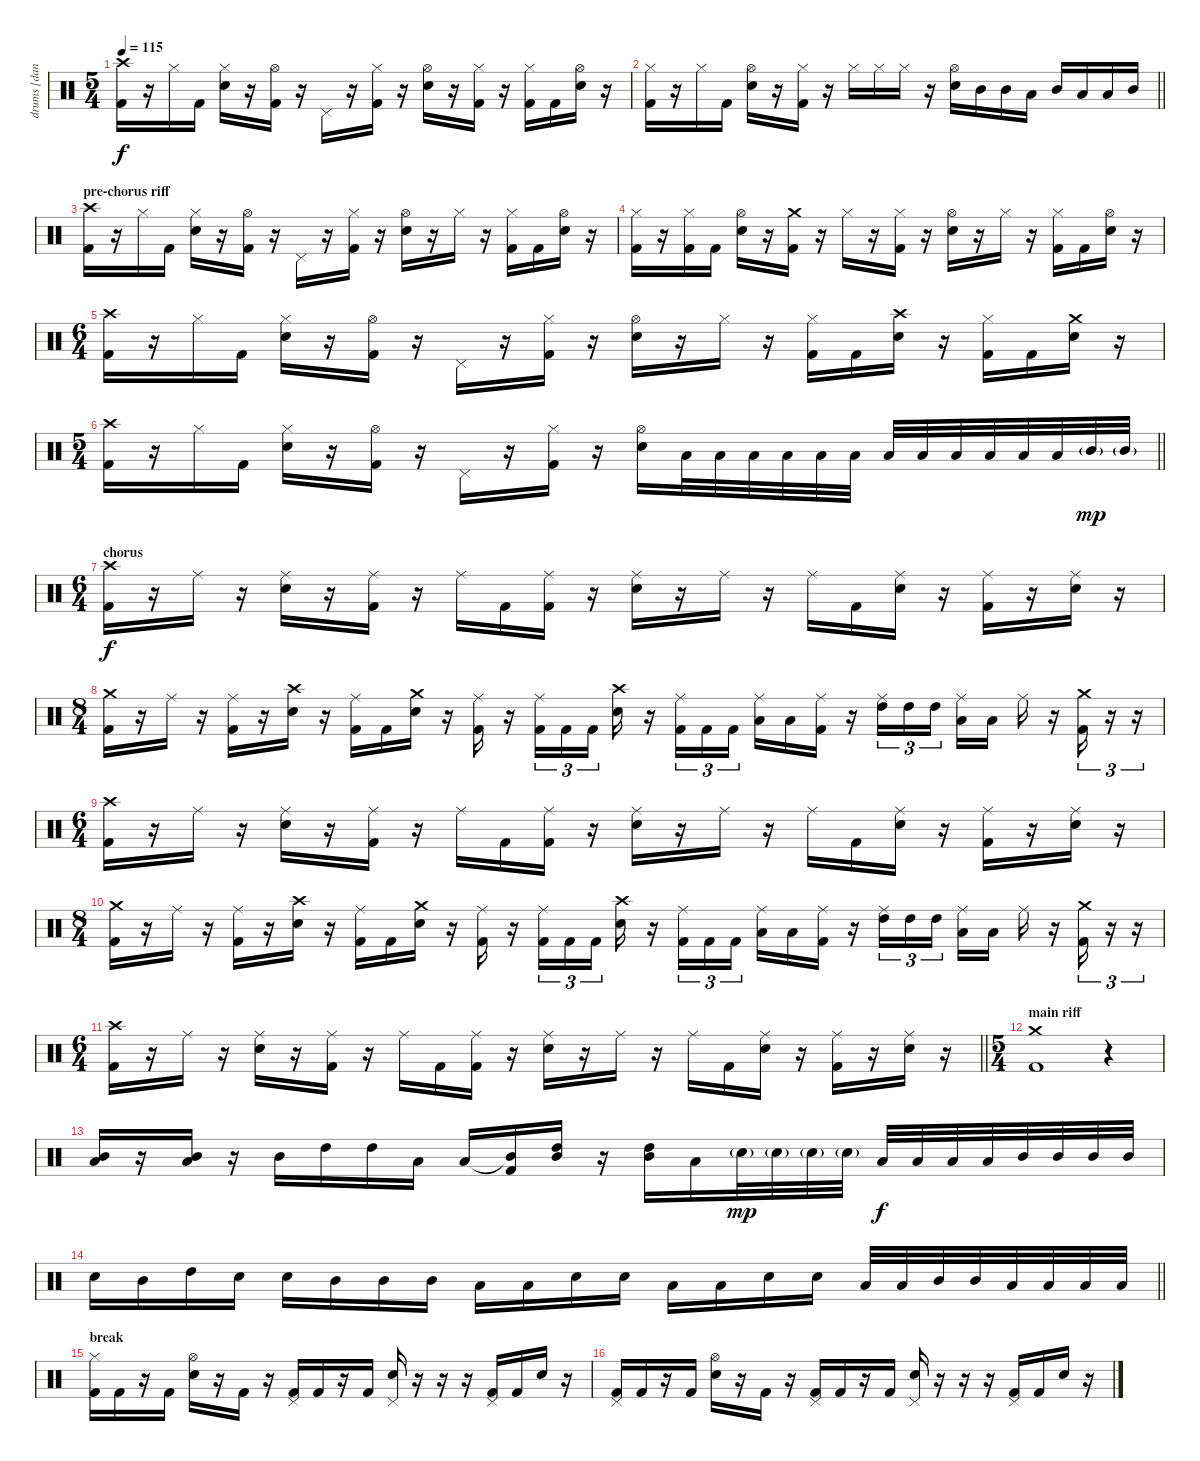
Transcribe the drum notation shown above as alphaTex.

\track ("drums [danny carey]" "drums [dan") {instrument percussion}
\staff {score}
\articulation defaults
\ts (5 4)
\tempo 115
\clef neutral
\ks c
("Crash high (hit)" "Kick (hit) 2").16{dy f} r.16 "Hi-Hat (closed)".16 "Kick (hit) 2".16 ("Hi-Hat (closed)" "Electric Snare (hit)").16 r.16 ("Hi-Hat (open)" "Kick (hit) 2").16 r.16 "Pedal Hi-Hat (hit)".16 r.16 ("Hi-Hat (closed)" "Kick (hit) 2").16 r.16 ("Hi-Hat (open)" "Electric Snare (hit)").16 r.16 ("Hi-Hat (closed)" "Kick (hit) 2").16 r.16 ("Hi-Hat (closed)" "Kick (hit) 2").16 "Kick (hit) 2".16 ("Hi-Hat (open)" "Electric Snare (hit)").16 r.16 |
\barLineRight lightlight
("Hi-Hat (closed)" "Kick (hit) 2").16 r.16 "Hi-Hat (closed)".16 "Kick (hit) 2".16 ("Hi-Hat (open)" "Electric Snare (hit)").16 r.16 ("Hi-Hat (closed)" "Kick (hit) 2").16 r.16 "Hi-Hat (closed)".16 "Hi-Hat (closed)".16 "Hi-Hat (closed)".16 r.16 ("Hi-Hat (open)" "Electric Snare (hit)").16 "Mid Tom (hit)".16 "Mid Tom (hit)".16 "Low Tom (hit)".16 "Mid Tom (hit)".16 "Low Tom (hit)".16 "Low Tom (hit)".16 "Mid Tom (hit)".16 |
\section ("" "pre-chorus riff")
("Crash high (hit)" "Kick (hit) 2").16 r.16 "Hi-Hat (closed)".16 "Kick (hit) 2".16 ("Hi-Hat (closed)" "Electric Snare (hit)").16 r.16 ("Hi-Hat (open)" "Kick (hit) 2").16 r.16 "Pedal Hi-Hat (hit)".16 r.16 ("Hi-Hat (closed)" "Kick (hit) 2").16 r.16 ("Hi-Hat (open)" "Electric Snare (hit)").16 r.16 "Hi-Hat (closed)".16 r.16 ("Hi-Hat (closed)" "Kick (hit) 2").16 "Kick (hit) 2".16 ("Hi-Hat (open)" "Electric Snare (hit)").16 r.16 |
("Hi-Hat (closed)" "Kick (hit) 2").16 r.16 ("Hi-Hat (closed)" "Kick (hit) 2").16 "Kick (hit) 2".16 ("Hi-Hat (open)" "Electric Snare (hit)").16 r.16 ("Crash medium (hit)" "Kick (hit) 2").16 r.16 "Hi-Hat (closed)".16 r.16 ("Hi-Hat (closed)" "Kick (hit) 2").16 r.16 ("Hi-Hat (open)" "Electric Snare (hit)").16 r.16 "Hi-Hat (closed)".16 r.16 ("Hi-Hat (closed)" "Kick (hit) 2").16 "Kick (hit) 2".16 ("Hi-Hat (open)" "Electric Snare (hit)").16 r.16 |
\ts (6 4)
("Crash high (hit)" "Kick (hit) 2").16 r.16 "Hi-Hat (closed)".16 "Kick (hit) 2".16 ("Hi-Hat (closed)" "Electric Snare (hit)").16 r.16 ("Hi-Hat (open)" "Kick (hit) 2").16 r.16 "Pedal Hi-Hat (hit)".16 r.16 ("Hi-Hat (closed)" "Kick (hit) 2").16 r.16 ("Hi-Hat (open)" "Electric Snare (hit)").16 r.16 "Hi-Hat (closed)".16 r.16 ("Hi-Hat (closed)" "Kick (hit) 2").16 "Kick (hit) 2".16 ("Crash high (hit)" "Electric Snare (hit)").16 r.16 ("Hi-Hat (closed)" "Kick (hit) 2").16 "Kick (hit) 2".16 ("Crash medium (hit)" "Electric Snare (hit)").16 r.16 |
\ts (5 4)
\barLineRight lightlight
("Crash high (hit)" "Kick (hit) 2").16 r.16 "Hi-Hat (closed)".16 "Kick (hit) 2".16 ("Hi-Hat (closed)" "Electric Snare (hit)").16 r.16 ("Hi-Hat (open)" "Kick (hit) 2").16 r.16 "Pedal Hi-Hat (hit)".16 r.16 ("Hi-Hat (closed)" "Kick (hit) 2").16 r.16 ("Hi-Hat (open)" "Electric Snare (hit)").16 "Low Floor Tom (hit)".32 "Low Floor Tom (hit)".32 "Low Floor Tom (hit)".32 "Low Floor Tom (hit)".32 "Low Tom (hit)".32 "Low Tom (hit)".32 "Low Floor Tom (hit)".32 "Low Floor Tom (hit)".32 "Low Floor Tom (hit)".32 "Low Floor Tom (hit)".32 "Low Tom (hit)".32 "Low Tom (hit)".32 "Mid Tom (hit)"{g}.32{dy mp} "Mid Tom (hit)"{g}.32 |
\ts (6 4)
\section ("" "chorus")
("Crash high (hit)" "Kick (hit) 2").16{dy f} r.16 "Ride (middle)".16 r.16 ("Ride (middle)" "Electric Snare (hit)").16 r.16 ("Ride (middle)" "Kick (hit) 2").16 r.16 "Ride (middle)".16 "Kick (hit) 2".16 ("Ride (middle)" "Kick (hit) 2").16 r.16 ("Ride (middle)" "Electric Snare (hit)").16 r.16 "Ride (middle)".16 r.16 "Ride (middle)".16 "Kick (hit) 2".16 ("Ride (middle)" "Electric Snare (hit)").16 r.16 ("Ride (middle)" "Kick (hit) 2").16 r.16 ("Ride (middle)" "Electric Snare (hit)").16 r.16 |
\ts (8 4)
("Crash medium (hit)" "Kick (hit) 2").16 r.16 "Ride (middle)".16 r.16 ("Ride (middle)" "Kick (hit) 2").16 r.16 ("Crash high (hit)" "Electric Snare (hit)").16 r.16 ("Ride (middle)" "Kick (hit) 2").16 "Kick (hit) 2".16 ("Crash medium (hit)" "Electric Snare (hit)").16 r.16 ("Ride (middle)" "Kick (hit) 2").16 r.16 ("Ride (middle)" "Kick (hit) 2").16{tu (3 2)} "Kick (hit) 2".16{tu (3 2)} "Kick (hit) 2".16{tu (3 2)} ("Crash high (hit)" "Electric Snare (hit)").16 r.16 ("Ride (middle)" "Kick (hit) 2").16{tu (3 2)} "Kick (hit) 2".16{tu (3 2)} "Kick (hit) 2".16{tu (3 2)} ("Ride (middle)" "Low Tom (hit)").16 "Low Tom (hit)".16 ("Ride (middle)" "Kick (hit) 2").16 r.16 ("Ride (middle)" "High Tom (hit)").16{tu (3 2)} "High Tom (hit)".16{tu (3 2)} "High Tom (hit)".16{tu (3 2) beam splitsecondary} ("Ride (middle)" "Low Tom (hit)").16 "Low Tom (hit)".16 "Ride (middle)".16 r.16 ("Crash medium (hit)" "Kick (hit) 2").16{tu (3 2)} r.16{tu (3 2)} r.16{tu (3 2)} |
\ts (6 4)
("Crash high (hit)" "Kick (hit) 2").16 r.16 "Ride (middle)".16 r.16 ("Ride (middle)" "Electric Snare (hit)").16 r.16 ("Ride (middle)" "Kick (hit) 2").16 r.16 "Ride (middle)".16 "Kick (hit) 2".16 ("Ride (middle)" "Kick (hit) 2").16 r.16 ("Ride (middle)" "Electric Snare (hit)").16 r.16 "Ride (middle)".16 r.16 "Ride (middle)".16 "Kick (hit) 2".16 ("Ride (middle)" "Electric Snare (hit)").16 r.16 ("Ride (middle)" "Kick (hit) 2").16 r.16 ("Ride (middle)" "Electric Snare (hit)").16 r.16 |
\ts (8 4)
("Crash medium (hit)" "Kick (hit) 2").16 r.16 "Ride (middle)".16 r.16 ("Ride (middle)" "Kick (hit) 2").16 r.16 ("Crash high (hit)" "Electric Snare (hit)").16 r.16 ("Ride (middle)" "Kick (hit) 2").16 "Kick (hit) 2".16 ("Crash medium (hit)" "Electric Snare (hit)").16 r.16 ("Ride (middle)" "Kick (hit) 2").16 r.16 ("Ride (middle)" "Kick (hit) 2").16{tu (3 2)} "Kick (hit) 2".16{tu (3 2)} "Kick (hit) 2".16{tu (3 2)} ("Crash high (hit)" "Electric Snare (hit)").16 r.16 ("Ride (middle)" "Kick (hit) 2").16{tu (3 2)} "Kick (hit) 2".16{tu (3 2)} "Kick (hit) 2".16{tu (3 2)} ("Ride (middle)" "Low Tom (hit)").16 "Low Tom (hit)".16 ("Ride (middle)" "Kick (hit) 2").16 r.16 ("Ride (middle)" "High Tom (hit)").16{tu (3 2)} "High Tom (hit)".16{tu (3 2)} "High Tom (hit)".16{tu (3 2) beam splitsecondary} ("Ride (middle)" "Low Tom (hit)").16 "Low Tom (hit)".16 "Ride (middle)".16 r.16 ("Crash medium (hit)" "Kick (hit) 2").16{tu (3 2)} r.16{tu (3 2)} r.16{tu (3 2)} |
\ts (6 4)
\barLineRight lightlight
("Crash high (hit)" "Kick (hit) 2").16 r.16 "Ride (middle)".16 r.16 ("Ride (middle)" "Electric Snare (hit)").16 r.16 ("Ride (middle)" "Kick (hit) 2").16 r.16 "Ride (middle)".16 "Kick (hit) 2".16 ("Ride (middle)" "Kick (hit) 2").16 r.16 ("Ride (middle)" "Electric Snare (hit)").16 r.16 "Ride (middle)".16 r.16 "Ride (middle)".16 "Kick (hit) 2".16 ("Ride (middle)" "Electric Snare (hit)").16 r.16 ("Ride (middle)" "Kick (hit) 2").16 r.16 ("Ride (middle)" "Electric Snare (hit)").16 r.16 |
\ts (5 4)
\section ("" "main riff")
("Crash medium (hit)" "Kick (hit) 2").1 r.4 |
("Mid Tom (hit)" "Low Tom (hit)").16 r.16 ("Mid Tom (hit)" "Low Tom (hit)").16 r.16 "Mid Tom (hit)".16 "High Tom (hit)".16 "High Tom (hit)".16 "Low Tom (hit)".16 "Low Tom (hit)".16 ("Mid Tom (hit)"{t} "Kick (hit) 2").16 ("Mid Tom (hit)" "High Tom (hit)").16 r.16 ("Mid Tom (hit)" "High Tom (hit)").16 "Low Tom (hit)".16 "Electric Snare (hit)"{g}.32{dy mp} "Electric Snare (hit)"{g}.32 "Electric Snare (hit)"{g}.32 "Electric Snare (hit)"{g}.32 "Low Tom (hit)".32{dy f} "Low Tom (hit)".32 "Low Tom (hit)".32 "Low Tom (hit)".32 "Mid Tom (hit)".32 "Mid Tom (hit)".32 "Mid Tom (hit)".32 "Mid Tom (hit)".32 |
\barLineRight lightlight "Electric Snare (hit)".16 "Mid Tom (hit)".16 "High Tom (hit)".16 "Electric Snare (hit)".16 "Electric Snare (hit)".16 "Mid Tom (hit)".16 "Mid Tom (hit)".16 "Mid Tom (hit)".16 "Low Tom (hit)".16 "Low Tom (hit)".16 "Electric Snare (hit)".16 "Electric Snare (hit)".16 "Low Tom (hit)".16 "Low Tom (hit)".16 "Electric Snare (hit)".16 "Electric Snare (hit)".16 "Low Tom (hit)".32 "Low Tom (hit)".32 "Mid Tom (hit)".32 "Mid Tom (hit)".32 "Low Tom (hit)".32 "Low Tom (hit)".32 "Low Tom (hit)".32 "Low Tom (hit)".32
|
\section ("" "break")
("Hi-Hat (closed)" "Kick (hit) 2").16 "Kick (hit) 2".16 r.16 "Kick (hit) 2".16 ("Hi-Hat (open)" "Electric Snare (hit)").16 r.16 "Kick (hit) 2".16 r.16 ("Pedal Hi-Hat (hit)" "Kick (hit) 2").16 "Kick (hit) 2".16 r.16 "Kick (hit) 2".16 ("Pedal Hi-Hat (hit)" "Electric Snare (hit)").16 r.16 r.16 r.16 ("Pedal Hi-Hat (hit)" "Kick (hit) 2").16 "Kick (hit) 2".16 "Electric Snare (hit)".16 r.16 |
("Pedal Hi-Hat (hit)" "Kick (hit) 2").16 "Kick (hit) 2".16 r.16 "Kick (hit) 2".16 ("Hi-Hat (open)" "Electric Snare (hit)").16 r.16 "Kick (hit) 2".16 r.16 ("Pedal Hi-Hat (hit)" "Kick (hit) 2").16 "Kick (hit) 2".16 r.16 "Kick (hit) 2".16 ("Pedal Hi-Hat (hit)" "Electric Snare (hit)").16 r.16 r.16 r.16 ("Pedal Hi-Hat (hit)" "Kick (hit) 2").16 "Kick (hit) 2".16 "Electric Snare (hit)".16 r.16
